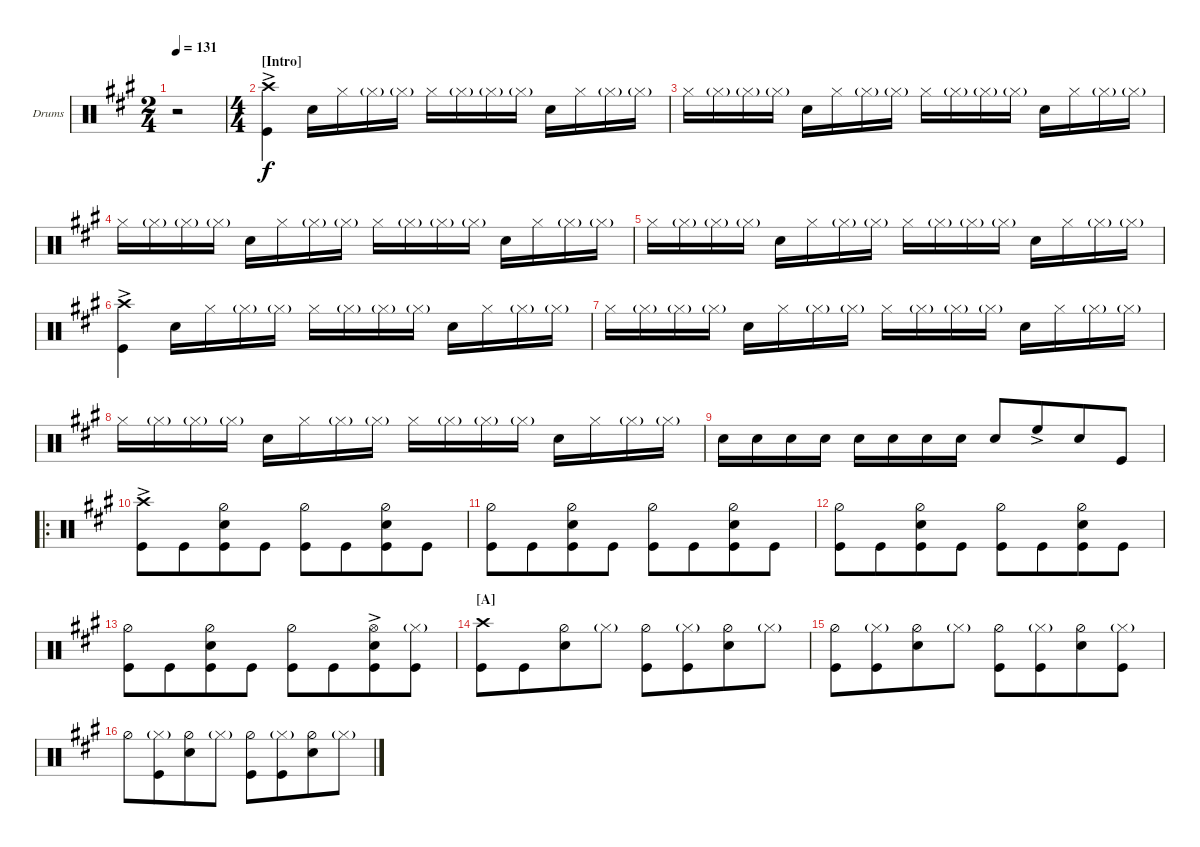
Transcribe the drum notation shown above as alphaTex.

\defaultSystemsLayout 4
\bracketExtendMode groupsimilarinstruments
\firstSystemTrackNameOrientation horizontal
\otherSystemsTrackNameOrientation horizontal
\track ("Drumkit" "Drums") {instrument percussion}
\staff {score}
\articulation defaults
\ts (2 4)
\tempo 131
\clef neutral
\ks a
r.2{dy f} |
\ts (4 4)
\section ("" "[Intro]")
("Kick (hit)" "Crash high (hit)"{ac}).4 "Snare (hit) 2".16 "Hi-Hat (closed)".16 "Hi-Hat (closed)"{g}.16 "Hi-Hat (closed)"{g}.16 "Hi-Hat (closed)".16 "Hi-Hat (closed)"{g}.16 "Hi-Hat (closed)"{g}.16 "Hi-Hat (closed)"{g}.16 "Snare (hit) 2".16 "Hi-Hat (closed)".16 "Hi-Hat (closed)"{g}.16 "Hi-Hat (closed)"{g}.16 |
"Hi-Hat (closed)".16 "Hi-Hat (closed)"{g}.16 "Hi-Hat (closed)"{g}.16 "Hi-Hat (closed)"{g}.16 "Snare (hit) 2".16 "Hi-Hat (closed)".16 "Hi-Hat (closed)"{g}.16 "Hi-Hat (closed)"{g}.16 "Hi-Hat (closed)".16 "Hi-Hat (closed)"{g}.16 "Hi-Hat (closed)"{g}.16 "Hi-Hat (closed)"{g}.16 "Snare (hit) 2".16 "Hi-Hat (closed)".16 "Hi-Hat (closed)"{g}.16 "Hi-Hat (closed)"{g}.16 |
"Hi-Hat (closed)".16 "Hi-Hat (closed)"{g}.16 "Hi-Hat (closed)"{g}.16 "Hi-Hat (closed)"{g}.16 "Snare (hit) 2".16 "Hi-Hat (closed)".16 "Hi-Hat (closed)"{g}.16 "Hi-Hat (closed)"{g}.16 "Hi-Hat (closed)".16 "Hi-Hat (closed)"{g}.16 "Hi-Hat (closed)"{g}.16 "Hi-Hat (closed)"{g}.16 "Snare (hit) 2".16 "Hi-Hat (closed)".16 "Hi-Hat (closed)"{g}.16 "Hi-Hat (closed)"{g}.16 |
"Hi-Hat (closed)".16 "Hi-Hat (closed)"{g}.16 "Hi-Hat (closed)"{g}.16 "Hi-Hat (closed)"{g}.16 "Snare (hit) 2".16 "Hi-Hat (closed)".16 "Hi-Hat (closed)"{g}.16 "Hi-Hat (closed)"{g}.16 "Hi-Hat (closed)".16 "Hi-Hat (closed)"{g}.16 "Hi-Hat (closed)"{g}.16 "Hi-Hat (closed)"{g}.16 "Snare (hit) 2".16 "Hi-Hat (closed)".16 "Hi-Hat (closed)"{g}.16 "Hi-Hat (closed)"{g}.16 |
("Kick (hit)" "Crash high (hit)"{ac}).4 "Snare (hit) 2".16 "Hi-Hat (closed)".16 "Hi-Hat (closed)"{g}.16 "Hi-Hat (closed)"{g}.16 "Hi-Hat (closed)".16 "Hi-Hat (closed)"{g}.16 "Hi-Hat (closed)"{g}.16 "Hi-Hat (closed)"{g}.16 "Snare (hit) 2".16 "Hi-Hat (closed)".16 "Hi-Hat (closed)"{g}.16 "Hi-Hat (closed)"{g}.16 |
"Hi-Hat (closed)".16 "Hi-Hat (closed)"{g}.16 "Hi-Hat (closed)"{g}.16 "Hi-Hat (closed)"{g}.16 "Snare (hit) 2".16 "Hi-Hat (closed)".16 "Hi-Hat (closed)"{g}.16 "Hi-Hat (closed)"{g}.16 "Hi-Hat (closed)".16 "Hi-Hat (closed)"{g}.16 "Hi-Hat (closed)"{g}.16 "Hi-Hat (closed)"{g}.16 "Snare (hit) 2".16 "Hi-Hat (closed)".16 "Hi-Hat (closed)"{g}.16 "Hi-Hat (closed)"{g}.16 |
"Hi-Hat (closed)".16 "Hi-Hat (closed)"{g}.16 "Hi-Hat (closed)"{g}.16 "Hi-Hat (closed)"{g}.16 "Snare (hit) 2".16 "Hi-Hat (closed)".16 "Hi-Hat (closed)"{g}.16 "Hi-Hat (closed)"{g}.16 "Hi-Hat (closed)".16 "Hi-Hat (closed)"{g}.16 "Hi-Hat (closed)"{g}.16 "Hi-Hat (closed)"{g}.16 "Snare (hit) 2".16 "Hi-Hat (closed)".16 "Hi-Hat (closed)"{g}.16 "Hi-Hat (closed)"{g}.16 |
"Snare (hit) 2".16 "Snare (hit) 2".16 "Snare (hit) 2".16 "Snare (hit) 2".16 "Snare (hit) 2".16 "Snare (hit) 2".16 "Snare (hit) 2".16 "Snare (hit) 2".16 "Snare (hit) 2".8 "High Floor Tom (hit)"{ac}.8{beam merge} "Snare (hit) 2".8 "Kick (hit)".8 |
\ro
("Kick (hit)" "Crash high (hit)"{ac}).8 "Kick (hit)".8{beam merge} ("Kick (hit)" "Snare (hit) 2" "Hi-Hat (half)").8 "Kick (hit)".8 ("Kick (hit)" "Hi-Hat (half)").8 "Kick (hit)".8{beam merge} ("Kick (hit)" "Snare (hit) 2" "Hi-Hat (half)").8 "Kick (hit)".8 |
("Kick (hit)" "Hi-Hat (half)").8 "Kick (hit)".8{beam merge} ("Kick (hit)" "Snare (hit) 2" "Hi-Hat (half)").8 "Kick (hit)".8 ("Kick (hit)" "Hi-Hat (half)").8 "Kick (hit)".8{beam merge} ("Kick (hit)" "Snare (hit) 2" "Hi-Hat (half)").8 "Kick (hit)".8 |
("Kick (hit)" "Hi-Hat (half)").8 "Kick (hit)".8{beam merge} ("Kick (hit)" "Snare (hit) 2" "Hi-Hat (half)").8 "Kick (hit)".8 ("Kick (hit)" "Hi-Hat (half)").8 "Kick (hit)".8{beam merge} ("Kick (hit)" "Snare (hit) 2" "Hi-Hat (half)").8 "Kick (hit)".8 |
("Kick (hit)" "Hi-Hat (half)").8 "Kick (hit)".8{beam merge} ("Kick (hit)" "Snare (hit) 2" "Hi-Hat (half)").8 "Kick (hit)".8 ("Kick (hit)" "Hi-Hat (half)").8 "Kick (hit)".8{beam merge} ("Kick (hit)" "Snare (hit) 2" "Hi-Hat (open)"{ac}).8 ("Kick (hit)" "Hi-Hat (closed)"{g}).8 |
\section ("" "[A]")
("Kick (hit)" "Crash high (hit)").8 "Kick (hit)".8{beam merge} ("Snare (hit) 2" "Hi-Hat (half)").8 "Hi-Hat (closed)"{g}.8 ("Kick (hit)" "Hi-Hat (half)").8 ("Kick (hit)" "Hi-Hat (closed)"{g}).8{beam merge} ("Snare (hit) 2" "Hi-Hat (half)").8 "Hi-Hat (closed)"{g}.8 |
("Kick (hit)" "Hi-Hat (half)").8 ("Kick (hit)" "Hi-Hat (closed)"{g}).8{beam merge} ("Snare (hit) 2" "Hi-Hat (half)").8 "Hi-Hat (closed)"{g}.8 ("Kick (hit)" "Hi-Hat (half)").8 ("Kick (hit)" "Hi-Hat (closed)"{g}).8{beam merge} ("Snare (hit) 2" "Hi-Hat (half)").8 ("Kick (hit)" "Hi-Hat (closed)"{g}).8 |
"Hi-Hat (half)".8 ("Kick (hit)" "Hi-Hat (closed)"{g}).8{beam merge} ("Snare (hit) 2" "Hi-Hat (half)").8 "Hi-Hat (closed)"{g}.8 ("Kick (hit)" "Hi-Hat (half)").8 ("Kick (hit)" "Hi-Hat (closed)"{g}).8{beam merge} ("Snare (hit) 2" "Hi-Hat (half)").8 "Hi-Hat (closed)"{g}.8
